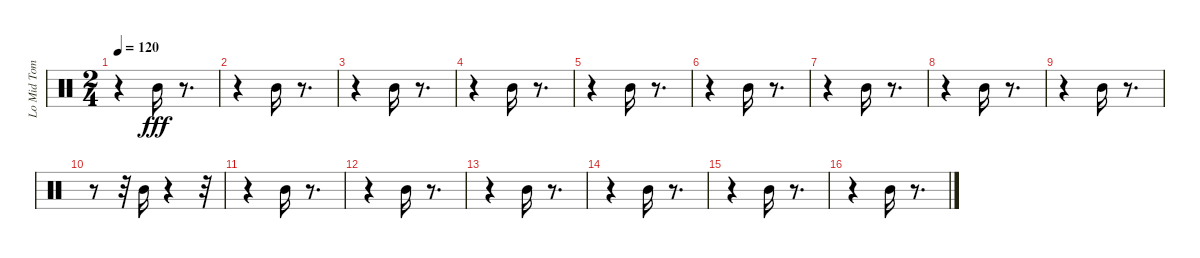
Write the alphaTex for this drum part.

\track ("Lo Mid Tom (1) (1) (1) (1)" "Lo Mid Tom") {instrument percussion}
\staff {score}
\articulation defaults
\ts (2 4)
\tempo 120
\clef neutral
\ks c
r.4{dy fff} "Mid Tom (hit)".16 r.8{d} |
r.4 "Mid Tom (hit)".16 r.8{d} |
r.4 "Mid Tom (hit)".16 r.8{d} |
r.4 "Mid Tom (hit)".16 r.8{d} |
r.4 "Mid Tom (hit)".16 r.8{d} |
r.4 "Mid Tom (hit)".16 r.8{d} |
r.4 "Mid Tom (hit)".16 r.8{d} |
r.4 "Mid Tom (hit)".16 r.8{d} |
r.4 "Mid Tom (hit)".16 r.8{d} |
r.8 r.32 "Mid Tom (hit)".16 r.4 r.32 |
r.4 "Mid Tom (hit)".16 r.8{d} |
r.4 "Mid Tom (hit)".16 r.8{d} |
r.4 "Mid Tom (hit)".16 r.8{d} |
r.4 "Mid Tom (hit)".16 r.8{d} |
r.4 "Mid Tom (hit)".16 r.8{d} |
r.4 "Mid Tom (hit)".16 r.8{d}
